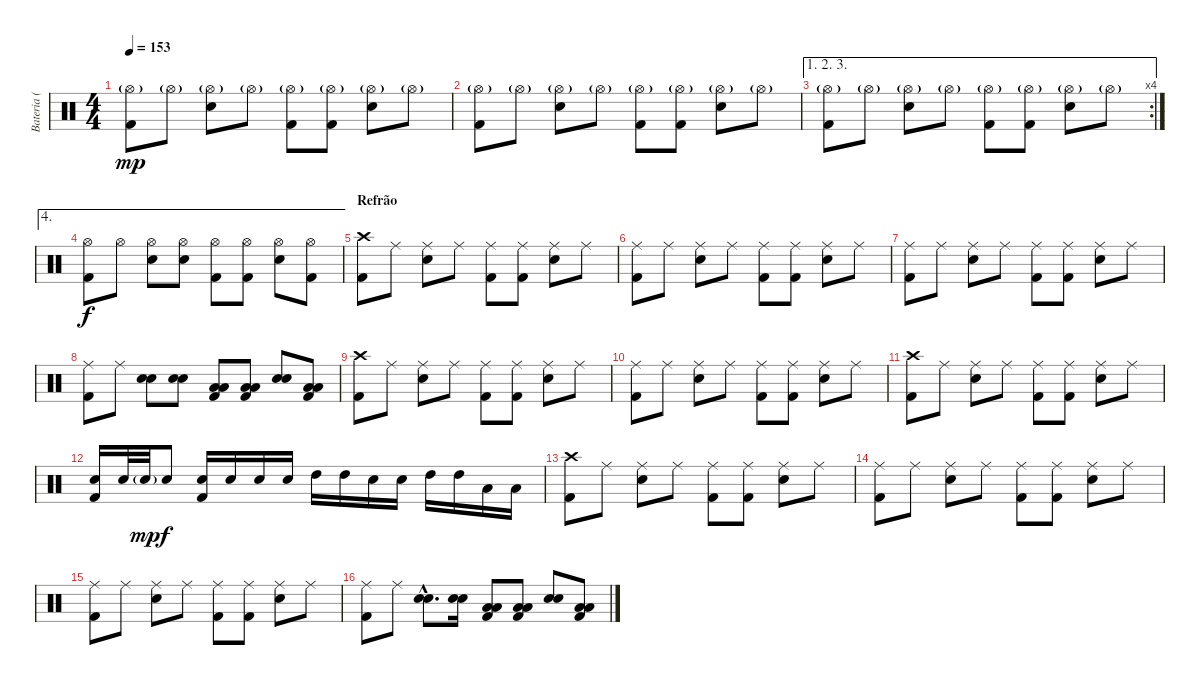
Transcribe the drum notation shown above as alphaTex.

\track ("Bateria ( Marky Ramone)" "Bateria ( ") {instrument percussion}
\staff {score}
\articulation defaults
\ts (4 4)
\tempo 153
\clef neutral
\ks c
("Hi-Hat (open)"{g} "Kick (hit) 2").8{dy mp} "Hi-Hat (open)"{g}.8 ("Hi-Hat (open)"{g} "Electric Snare (hit)").8 "Hi-Hat (open)"{g}.8 ("Hi-Hat (open)"{g} "Kick (hit) 2").8 ("Hi-Hat (open)"{g} "Kick (hit) 2").8 ("Hi-Hat (open)"{g} "Electric Snare (hit)").8 "Hi-Hat (open)"{g}.8 |
("Hi-Hat (open)"{g} "Kick (hit) 2").8 "Hi-Hat (open)"{g}.8 ("Hi-Hat (open)"{g} "Electric Snare (hit)").8 "Hi-Hat (open)"{g}.8 ("Hi-Hat (open)"{g} "Kick (hit) 2").8 ("Hi-Hat (open)"{g} "Kick (hit) 2").8 ("Hi-Hat (open)"{g} "Electric Snare (hit)").8 "Hi-Hat (open)"{g}.8 |
\ae (1 2 3)
\rc 4
("Hi-Hat (open)"{g} "Kick (hit) 2").8 "Hi-Hat (open)"{g}.8 ("Hi-Hat (open)"{g} "Electric Snare (hit)").8 "Hi-Hat (open)"{g}.8 ("Hi-Hat (open)"{g} "Kick (hit) 2").8 ("Hi-Hat (open)"{g} "Kick (hit) 2").8 ("Hi-Hat (open)"{g} "Electric Snare (hit)").8 "Hi-Hat (open)"{g}.8 |
\ae 4
("Hi-Hat (open)" "Kick (hit) 2").8{dy f} "Hi-Hat (open)".8 ("Hi-Hat (open)" "Electric Snare (hit)").8 ("Hi-Hat (open)" "Electric Snare (hit)").8 ("Hi-Hat (open)" "Kick (hit) 2").8 ("Hi-Hat (open)" "Kick (hit) 2").8 ("Hi-Hat (open)" "Electric Snare (hit)").8 ("Hi-Hat (open)" "Kick (hit) 2").8 |
\section ("" "Refrão")
("Crash high (hit)" "Kick (hit) 2").8 "Ride (middle)".8 ("Ride (middle)" "Electric Snare (hit)").8 "Ride (middle)".8 ("Ride (middle)" "Kick (hit) 2").8 ("Ride (middle)" "Kick (hit) 2").8 ("Ride (middle)" "Electric Snare (hit)").8 "Ride (middle)".8 |
("Ride (middle)" "Kick (hit) 2").8 "Ride (middle)".8 ("Ride (middle)" "Electric Snare (hit)").8 "Ride (middle)".8 ("Ride (middle)" "Kick (hit) 2").8 ("Ride (middle)" "Kick (hit) 2").8 ("Ride (middle)" "Electric Snare (hit)").8 "Ride (middle)".8 |
("Ride (middle)" "Kick (hit) 2").8 "Ride (middle)".8 ("Ride (middle)" "Electric Snare (hit)").8 "Ride (middle)".8 ("Ride (middle)" "Kick (hit) 2").8 ("Ride (middle)" "Kick (hit) 2").8 ("Ride (middle)" "Electric Snare (hit)").8 "Ride (middle)".8 |
("Ride (middle)" "Kick (hit) 2").8 "Ride (middle)".8 ("Electric Snare (hit)" "Electric Snare (hit)").8 ("Electric Snare (hit)" "Electric Snare (hit)").8 ("Low Tom (hit)" "Low Tom (hit)" "Kick (hit) 2").8 ("Low Tom (hit)" "Low Tom (hit)" "Kick (hit) 2").8 ("Electric Snare (hit)" "Electric Snare (hit)").8 ("Low Tom (hit)" "Low Tom (hit)" "Kick (hit) 2").8 |
("Crash high (hit)" "Kick (hit) 2").8 "Ride (middle)".8 ("Ride (middle)" "Electric Snare (hit)").8 "Ride (middle)".8 ("Ride (middle)" "Kick (hit) 2").8 ("Ride (middle)" "Kick (hit) 2").8 ("Ride (middle)" "Electric Snare (hit)").8 "Ride (middle)".8 |
("Ride (middle)" "Kick (hit) 2").8 "Ride (middle)".8 ("Ride (middle)" "Electric Snare (hit)").8 "Ride (middle)".8 ("Ride (middle)" "Kick (hit) 2").8 ("Ride (middle)" "Kick (hit) 2").8 ("Ride (middle)" "Electric Snare (hit)").8 "Ride (middle)".8 |
("Crash high (hit)" "Kick (hit) 2").8 "Ride (middle)".8 ("Ride (middle)" "Electric Snare (hit)").8 "Ride (middle)".8 ("Ride (middle)" "Kick (hit) 2").8 ("Ride (middle)" "Kick (hit) 2").8 ("Ride (middle)" "Electric Snare (hit)").8 "Ride (middle)".8 |
("Electric Snare (hit)" "Kick (hit) 2").16 "Electric Snare (hit)".32 "Electric Snare (hit)"{g}.32{dy mp} "Electric Snare (hit)".8{dy f} ("Electric Snare (hit)" "Kick (hit) 2").16 "Electric Snare (hit)".16 "Electric Snare (hit)".16 "Electric Snare (hit)".16 "High Tom (hit)".16 "High Tom (hit)".16 "Electric Snare (hit)".16 "Electric Snare (hit)".16 "High Tom (hit)".16 "High Tom (hit)".16 "Low Tom (hit)".16 "Low Tom (hit)".16 |
("Crash high (hit)" "Kick (hit) 2").8 "Ride (middle)".8 ("Ride (middle)" "Electric Snare (hit)").8 "Ride (middle)".8 ("Ride (middle)" "Kick (hit) 2").8 ("Ride (middle)" "Kick (hit) 2").8 ("Ride (middle)" "Electric Snare (hit)").8 "Ride (middle)".8 |
("Ride (middle)" "Kick (hit) 2").8 "Ride (middle)".8 ("Ride (middle)" "Electric Snare (hit)").8 "Ride (middle)".8 ("Ride (middle)" "Kick (hit) 2").8 ("Ride (middle)" "Kick (hit) 2").8 ("Ride (middle)" "Electric Snare (hit)").8 "Ride (middle)".8 |
("Ride (middle)" "Kick (hit) 2").8 "Ride (middle)".8 ("Ride (middle)" "Electric Snare (hit)").8 "Ride (middle)".8 ("Ride (middle)" "Kick (hit) 2").8 ("Ride (middle)" "Kick (hit) 2").8 ("Ride (middle)" "Electric Snare (hit)").8 "Ride (middle)".8 |
("Ride (middle)" "Kick (hit) 2").8 "Ride (middle)".8 ("Electric Snare (hit)"{hac} "Electric Snare (hit)"{hac}).8{d} ("Electric Snare (hit)" "Electric Snare (hit)").16 ("Low Tom (hit)" "Low Tom (hit)" "Kick (hit) 2").8 ("Low Tom (hit)" "Low Tom (hit)" "Kick (hit) 2").8 ("Electric Snare (hit)" "Electric Snare (hit)").8 ("Low Tom (hit)" "Low Tom (hit)" "Kick (hit) 2").8
